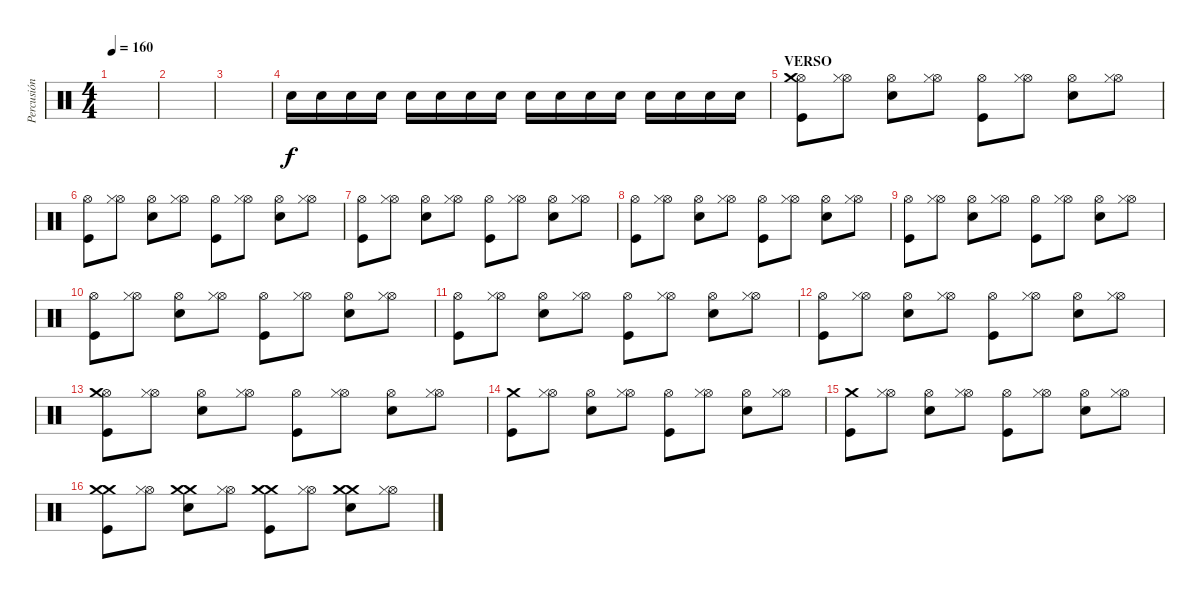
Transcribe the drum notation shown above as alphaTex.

\track ("Percusión" "Percusión") {instrument percussion}
\staff {score}
\articulation defaults
\ts (4 4)
\tempo 160
\clef neutral
\ks c
|
|
|
"Snare (hit) 2".16 "Snare (hit) 2".16 "Snare (hit) 2".16 "Snare (hit) 2".16 "Snare (hit) 2".16 "Snare (hit) 2".16 "Snare (hit) 2".16 "Snare (hit) 2".16 "Snare (hit) 2".16 "Snare (hit) 2".16 "Snare (hit) 2".16 "Snare (hit) 2".16 "Snare (hit) 2".16 "Snare (hit) 2".16 "Snare (hit) 2".16 "Snare (hit) 2".16 |
\section ("" "VERSO")
("Kick (hit)" "Hi-Hat (open)" "Crash medium (hit)").8 ("Hi-Hat (open)" "Hi-Hat (closed)").8 ("Snare (hit) 2" "Hi-Hat (open)").8 ("Hi-Hat (open)" "Hi-Hat (closed)").8 ("Kick (hit)" "Hi-Hat (open)").8 ("Hi-Hat (open)" "Hi-Hat (closed)").8 ("Snare (hit) 2" "Hi-Hat (open)").8 ("Hi-Hat (open)" "Hi-Hat (closed)").8 |
("Kick (hit)" "Hi-Hat (open)").8 ("Hi-Hat (open)" "Hi-Hat (closed)").8 ("Snare (hit) 2" "Hi-Hat (open)").8 ("Hi-Hat (open)" "Hi-Hat (closed)").8 ("Kick (hit)" "Hi-Hat (open)").8 ("Hi-Hat (open)" "Hi-Hat (closed)").8 ("Snare (hit) 2" "Hi-Hat (open)").8 ("Hi-Hat (open)" "Hi-Hat (closed)").8 |
("Kick (hit)" "Hi-Hat (open)").8 ("Hi-Hat (open)" "Hi-Hat (closed)").8 ("Snare (hit) 2" "Hi-Hat (open)").8 ("Hi-Hat (open)" "Hi-Hat (closed)").8 ("Kick (hit)" "Hi-Hat (open)").8 ("Hi-Hat (open)" "Hi-Hat (closed)").8 ("Snare (hit) 2" "Hi-Hat (open)").8 ("Hi-Hat (open)" "Hi-Hat (closed)").8 |
("Kick (hit)" "Hi-Hat (open)").8 ("Hi-Hat (open)" "Hi-Hat (closed)").8 ("Snare (hit) 2" "Hi-Hat (open)").8 ("Hi-Hat (open)" "Hi-Hat (closed)").8 ("Kick (hit)" "Hi-Hat (open)").8 ("Hi-Hat (open)" "Hi-Hat (closed)").8 ("Snare (hit) 2" "Hi-Hat (open)").8 ("Hi-Hat (open)" "Hi-Hat (closed)").8 |
("Kick (hit)" "Hi-Hat (open)").8 ("Hi-Hat (open)" "Hi-Hat (closed)").8 ("Snare (hit) 2" "Hi-Hat (open)").8 ("Hi-Hat (open)" "Hi-Hat (closed)").8 ("Kick (hit)" "Hi-Hat (open)").8 ("Hi-Hat (open)" "Hi-Hat (closed)").8 ("Snare (hit) 2" "Hi-Hat (open)").8 ("Hi-Hat (open)" "Hi-Hat (closed)").8 |
("Kick (hit)" "Hi-Hat (open)").8 ("Hi-Hat (open)" "Hi-Hat (closed)").8 ("Snare (hit) 2" "Hi-Hat (open)").8 ("Hi-Hat (open)" "Hi-Hat (closed)").8 ("Kick (hit)" "Hi-Hat (open)").8 ("Hi-Hat (open)" "Hi-Hat (closed)").8 ("Snare (hit) 2" "Hi-Hat (open)").8 ("Hi-Hat (open)" "Hi-Hat (closed)").8 |
("Kick (hit)" "Hi-Hat (open)").8 ("Hi-Hat (open)" "Hi-Hat (closed)").8 ("Snare (hit) 2" "Hi-Hat (open)").8 ("Hi-Hat (open)" "Hi-Hat (closed)").8 ("Kick (hit)" "Hi-Hat (open)").8 ("Hi-Hat (open)" "Hi-Hat (closed)").8 ("Snare (hit) 2" "Hi-Hat (open)").8 ("Hi-Hat (open)" "Hi-Hat (closed)").8 |
("Kick (hit)" "Hi-Hat (open)").8 ("Hi-Hat (open)" "Hi-Hat (closed)").8 ("Snare (hit) 2" "Hi-Hat (open)").8 ("Hi-Hat (open)" "Hi-Hat (closed)").8 ("Kick (hit)" "Hi-Hat (open)").8 ("Hi-Hat (open)" "Hi-Hat (closed)").8 ("Snare (hit) 2" "Hi-Hat (open)").8 ("Hi-Hat (open)" "Hi-Hat (closed)").8 |
("Kick (hit)" "Hi-Hat (open)" "Crash medium (hit)").8 ("Hi-Hat (open)" "Hi-Hat (closed)").8 ("Snare (hit) 2" "Hi-Hat (open)").8 ("Hi-Hat (open)" "Hi-Hat (closed)").8 ("Kick (hit)" "Hi-Hat (open)").8 ("Hi-Hat (open)" "Hi-Hat (closed)").8 ("Snare (hit) 2" "Hi-Hat (open)").8 ("Hi-Hat (open)" "Hi-Hat (closed)").8 |
("Kick (hit)" "Crash medium (hit)").8 ("Hi-Hat (open)" "Hi-Hat (closed)").8 ("Snare (hit) 2" "Hi-Hat (open)").8 ("Hi-Hat (open)" "Hi-Hat (closed)").8 ("Kick (hit)" "Hi-Hat (open)").8 ("Hi-Hat (open)" "Hi-Hat (closed)").8 ("Snare (hit) 2" "Hi-Hat (open)").8 ("Hi-Hat (open)" "Hi-Hat (closed)").8 |
("Kick (hit)" "Crash medium (hit)").8 ("Hi-Hat (open)" "Hi-Hat (closed)").8 ("Snare (hit) 2" "Hi-Hat (open)").8 ("Hi-Hat (open)" "Hi-Hat (closed)").8 ("Kick (hit)" "Hi-Hat (open)").8 ("Hi-Hat (open)" "Hi-Hat (closed)").8 ("Snare (hit) 2" "Hi-Hat (open)").8 ("Hi-Hat (open)" "Hi-Hat (closed)").8 |
("Kick (hit)" "Crash medium (hit)" "Crash medium (hit)").8 ("Hi-Hat (open)" "Hi-Hat (closed)").8 ("Snare (hit) 2" "Crash medium (hit)" "Crash medium (hit)").8 ("Hi-Hat (open)" "Hi-Hat (closed)").8 ("Kick (hit)" "Crash medium (hit)" "Crash medium (hit)").8 ("Hi-Hat (open)" "Hi-Hat (closed)").8 ("Snare (hit) 2" "Crash medium (hit)" "Crash medium (hit)").8 ("Hi-Hat (open)" "Hi-Hat (closed)").8
